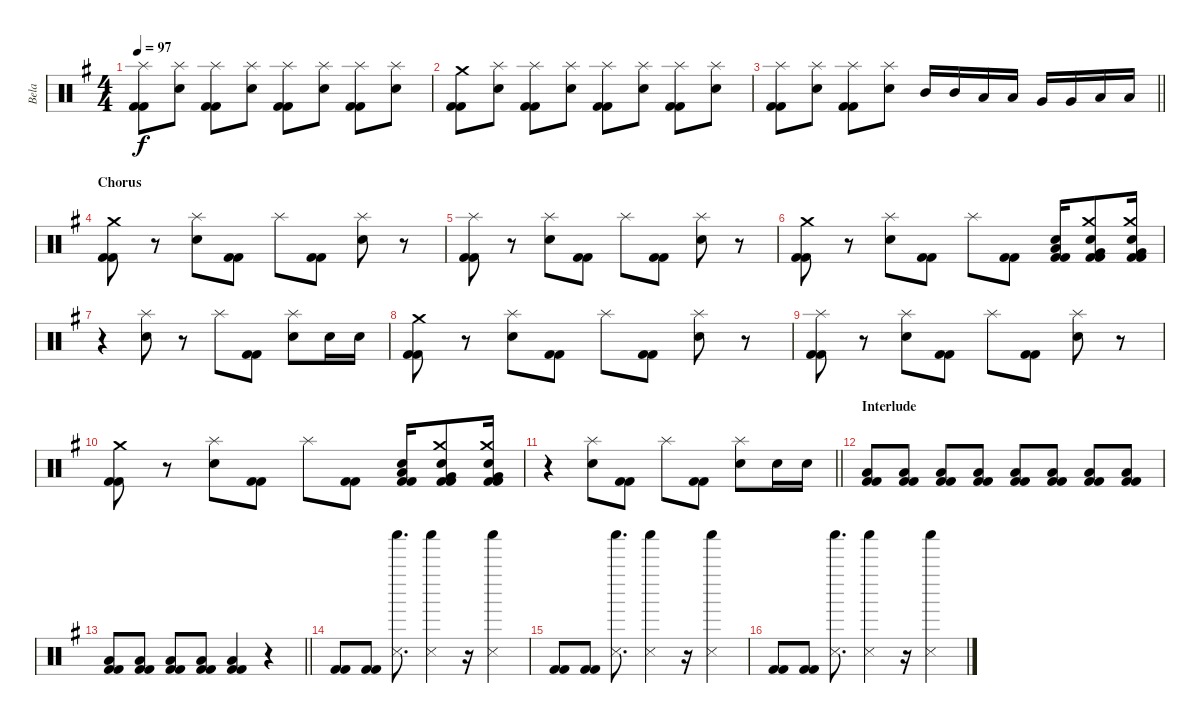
\track ("Bela" "Bela") {instrument percussion}
\staff {score}
\articulation defaults
\ts (4 4)
\tempo 97
\clef neutral
\ks g
("Splash (hit)" "Kick (hit) 2" "Kick (hit) 2").8{dy f} ("Splash (hit)" "Electric Snare (hit)").8 ("Splash (hit)" "Kick (hit) 2" "Kick (hit) 2").8 ("Splash (hit)" "Electric Snare (hit)").8 ("Splash (hit)" "Kick (hit) 2" "Kick (hit) 2").8 ("Splash (hit)" "Electric Snare (hit)").8 ("Splash (hit)" "Kick (hit) 2" "Kick (hit) 2").8 ("Splash (hit)" "Electric Snare (hit)").8 |
("Crash medium (hit)" "Kick (hit) 2" "Kick (hit) 2").8 ("Splash (hit)" "Electric Snare (hit)").8 ("Splash (hit)" "Kick (hit) 2" "Kick (hit) 2").8 ("Splash (hit)" "Electric Snare (hit)").8 ("Splash (hit)" "Kick (hit) 2" "Kick (hit) 2").8 ("Splash (hit)" "Electric Snare (hit)").8 ("Splash (hit)" "Kick (hit) 2" "Kick (hit) 2").8 ("Splash (hit)" "Electric Snare (hit)").8 |
\barLineRight lightlight
("Splash (hit)" "Kick (hit) 2" "Kick (hit) 2").8 ("Splash (hit)" "Electric Snare (hit)").8 ("Splash (hit)" "Kick (hit) 2" "Kick (hit) 2").8 ("Splash (hit)" "Electric Snare (hit)").8 "Mid Tom (hit)".16 "Mid Tom (hit)".16 "Low Tom (hit)".16 "Low Tom (hit)".16 "Very Low Tom (hit)".16 "Very Low Tom (hit)".16 "Low Floor Tom (hit)".16 "Low Floor Tom (hit)".16 |
\section ("" "Chorus")
("Crash medium (hit)" "Kick (hit) 2" "Kick (hit) 2").8 r.8 ("Splash (hit)" "Snare (hit) 2").8 ("Kick (hit) 2" "Kick (hit) 2").8 "Splash (hit)".8 ("Kick (hit) 2" "Kick (hit) 2").8 ("Splash (hit)" "Snare (hit) 2").8 r.8 |
("Splash (hit)" "Kick (hit) 2" "Kick (hit) 2").8 r.8 ("Splash (hit)" "Snare (hit) 2").8 ("Kick (hit) 2" "Kick (hit) 2").8 "Splash (hit)".8 ("Kick (hit) 2" "Kick (hit) 2").8 ("Splash (hit)" "Snare (hit) 2").8 r.8 |
("Crash medium (hit)" "Kick (hit) 2" "Kick (hit) 2").8 r.8 ("Splash (hit)" "Snare (hit) 2").8 ("Kick (hit) 2" "Kick (hit) 2").8 "Splash (hit)".8 ("Kick (hit) 2" "Kick (hit) 2").8 ("Low Floor Tom (hit)" "Electric Snare (hit)" "Kick (hit) 2" "Kick (hit) 2").16 ("Crash medium (hit)" "Very Low Tom (hit)" "Electric Snare (hit)" "Kick (hit) 2" "Kick (hit) 2").8 ("Crash medium (hit)" "Very Low Tom (hit)" "Electric Snare (hit)" "Kick (hit) 2" "Kick (hit) 2").16 |
r.4 ("Splash (hit)" "Snare (hit) 2").8 r.8 "Splash (hit)".8 ("Kick (hit) 2" "Kick (hit) 2").8 ("Splash (hit)" "Snare (hit) 2").8 "Snare (hit) 2".16 "Snare (hit) 2".16 |
("Crash medium (hit)" "Kick (hit) 2" "Kick (hit) 2").8 r.8 ("Splash (hit)" "Snare (hit) 2").8 ("Kick (hit) 2" "Kick (hit) 2").8 "Splash (hit)".8 ("Kick (hit) 2" "Kick (hit) 2").8 ("Splash (hit)" "Snare (hit) 2").8 r.8 |
("Splash (hit)" "Kick (hit) 2" "Kick (hit) 2").8 r.8 ("Splash (hit)" "Snare (hit) 2").8 ("Kick (hit) 2" "Kick (hit) 2").8 "Splash (hit)".8 ("Kick (hit) 2" "Kick (hit) 2").8 ("Splash (hit)" "Snare (hit) 2").8 r.8 |
("Crash medium (hit)" "Kick (hit) 2" "Kick (hit) 2").8 r.8 ("Splash (hit)" "Snare (hit) 2").8 ("Kick (hit) 2" "Kick (hit) 2").8 "Splash (hit)".8 ("Kick (hit) 2" "Kick (hit) 2").8 ("Low Floor Tom (hit)" "Electric Snare (hit)" "Kick (hit) 2" "Kick (hit) 2").16 ("Crash medium (hit)" "Very Low Tom (hit)" "Electric Snare (hit)" "Kick (hit) 2" "Kick (hit) 2").8 ("Crash medium (hit)" "Very Low Tom (hit)" "Electric Snare (hit)" "Kick (hit) 2" "Kick (hit) 2").16 |
\barLineRight lightlight
r.4 ("Splash (hit)" "Snare (hit) 2").8 ("Kick (hit) 2" "Kick (hit) 2").8 "Splash (hit)".8 ("Kick (hit) 2" "Kick (hit) 2").8 ("Splash (hit)" "Snare (hit) 2").8 "Snare (hit) 2".16 "Snare (hit) 2".16 |
\section ("" "Interlude")
("Low Floor Tom (hit)" "Kick (hit) 2" "Kick (hit) 2").8 ("Low Floor Tom (hit)" "Kick (hit) 2" "Kick (hit) 2").8 ("Low Floor Tom (hit)" "Kick (hit) 2" "Kick (hit) 2").8 ("Low Floor Tom (hit)" "Kick (hit) 2" "Kick (hit) 2").8 ("Low Floor Tom (hit)" "Kick (hit) 2" "Kick (hit) 2").8 ("Low Floor Tom (hit)" "Kick (hit) 2" "Kick (hit) 2").8 ("Low Floor Tom (hit)" "Kick (hit) 2" "Kick (hit) 2").8 ("Low Floor Tom (hit)" "Kick (hit) 2" "Kick (hit) 2").8 |
\barLineRight lightlight
("Low Floor Tom (hit)" "Kick (hit) 2" "Kick (hit) 2").8 ("Low Floor Tom (hit)" "Kick (hit) 2" "Kick (hit) 2").8 ("Low Floor Tom (hit)" "Kick (hit) 2" "Kick (hit) 2").8 ("Low Floor Tom (hit)" "Kick (hit) 2" "Kick (hit) 2").8 ("Low Floor Tom (hit)" "Kick (hit) 2" "Kick (hit) 2").4 r.4 |
("Kick (hit) 2" "Kick (hit) 2").8 ("Kick (hit) 2" "Kick (hit) 2").8 ("Snare (side stick) 3" "Shaker (hit)").8{d} ("Snare (side stick) 3" "Shaker (hit)").4 r.16 ("Snare (side stick) 3" "Shaker (hit)").4 |
("Kick (hit) 2" "Kick (hit) 2").8 ("Kick (hit) 2" "Kick (hit) 2").8 ("Snare (side stick) 3" "Shaker (hit)").8{d} ("Snare (side stick) 3" "Shaker (hit)").4 r.16 ("Snare (side stick) 3" "Shaker (hit)").4 |
("Kick (hit) 2" "Kick (hit) 2").8 ("Kick (hit) 2" "Kick (hit) 2").8 ("Snare (side stick) 3" "Shaker (hit)").8{d} ("Snare (side stick) 3" "Shaker (hit)").4 r.16 ("Snare (side stick) 3" "Shaker (hit)").4
